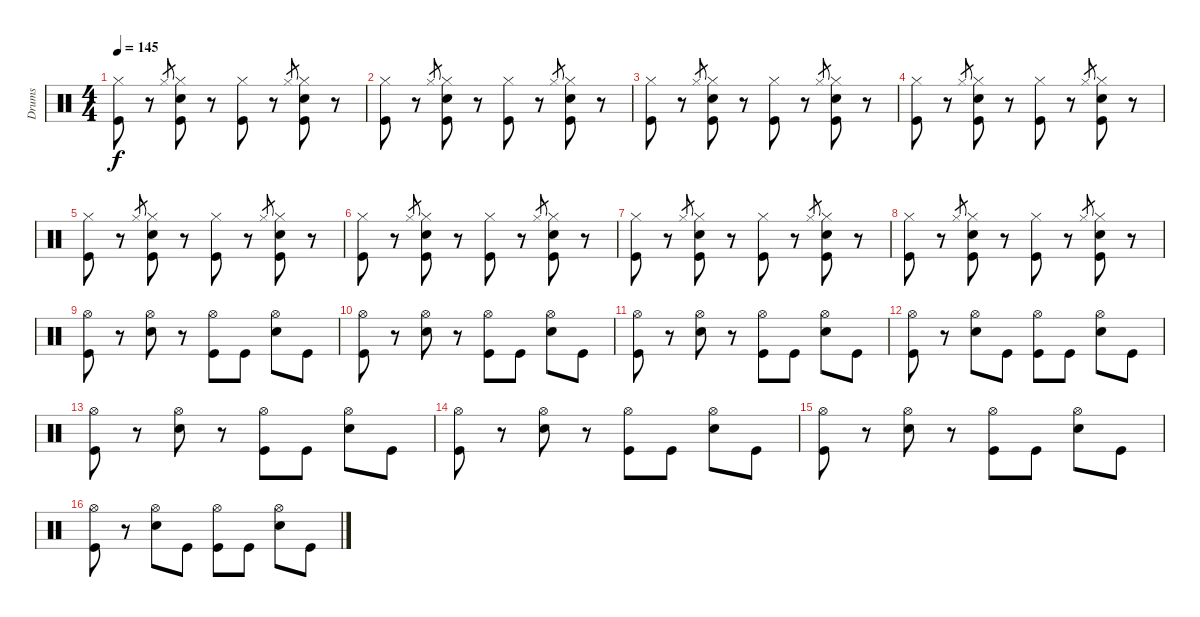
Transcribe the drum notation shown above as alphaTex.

\track ("Drums" "Drums") {instrument percussion}
\staff {score}
\articulation defaults
\ts (4 4)
\tempo 145
\clef neutral
\ks c
("Hi-Hat (closed)" "Kick (hit)").8{dy f} r.8 "Hi-Hat (closed)".8{gr} ("Hi-Hat (closed)" "Snare (hit) 2" "Kick (hit)").8 r.8 ("Hi-Hat (closed)" "Kick (hit)").8 r.8 "Hi-Hat (closed)".8{gr} ("Hi-Hat (closed)" "Snare (hit) 2" "Kick (hit)").8 r.8 |
("Hi-Hat (closed)" "Kick (hit)").8 r.8 "Hi-Hat (closed)".8{gr} ("Hi-Hat (closed)" "Snare (hit) 2" "Kick (hit)").8 r.8 ("Hi-Hat (closed)" "Kick (hit)").8 r.8 "Hi-Hat (closed)".8{gr} ("Hi-Hat (closed)" "Snare (hit) 2" "Kick (hit)").8 r.8 |
("Hi-Hat (closed)" "Kick (hit)").8 r.8 "Hi-Hat (closed)".8{gr} ("Hi-Hat (closed)" "Snare (hit) 2" "Kick (hit)").8 r.8 ("Hi-Hat (closed)" "Kick (hit)").8 r.8 "Hi-Hat (closed)".8{gr} ("Hi-Hat (closed)" "Snare (hit) 2" "Kick (hit)").8 r.8 |
("Hi-Hat (closed)" "Kick (hit)").8 r.8 "Hi-Hat (closed)".8{gr} ("Hi-Hat (closed)" "Snare (hit) 2" "Kick (hit)").8 r.8 ("Hi-Hat (closed)" "Kick (hit)").8 r.8 "Hi-Hat (closed)".8{gr} ("Hi-Hat (closed)" "Snare (hit) 2" "Kick (hit)").8 r.8 |
("Hi-Hat (closed)" "Kick (hit)").8 r.8 "Hi-Hat (closed)".8{gr} ("Hi-Hat (closed)" "Snare (hit) 2" "Kick (hit)").8 r.8 ("Hi-Hat (closed)" "Kick (hit)").8 r.8 "Hi-Hat (closed)".8{gr} ("Hi-Hat (closed)" "Snare (hit) 2" "Kick (hit)").8 r.8 |
("Hi-Hat (closed)" "Kick (hit)").8 r.8 "Hi-Hat (closed)".8{gr} ("Hi-Hat (closed)" "Snare (hit) 2" "Kick (hit)").8 r.8 ("Hi-Hat (closed)" "Kick (hit)").8 r.8 "Hi-Hat (closed)".8{gr} ("Hi-Hat (closed)" "Snare (hit) 2" "Kick (hit)").8 r.8 |
("Hi-Hat (closed)" "Kick (hit)").8 r.8 "Hi-Hat (closed)".8{gr} ("Hi-Hat (closed)" "Snare (hit) 2" "Kick (hit)").8 r.8 ("Hi-Hat (closed)" "Kick (hit)").8 r.8 "Hi-Hat (closed)".8{gr} ("Hi-Hat (closed)" "Snare (hit) 2" "Kick (hit)").8 r.8 |
("Hi-Hat (closed)" "Kick (hit)").8 r.8 "Hi-Hat (closed)".8{gr} ("Hi-Hat (closed)" "Snare (hit) 2" "Kick (hit)").8 r.8 ("Hi-Hat (closed)" "Kick (hit)").8 r.8 "Hi-Hat (closed)".8{gr} ("Hi-Hat (closed)" "Snare (hit) 2" "Kick (hit)").8 r.8 |
("Hi-Hat (open)" "Kick (hit)").8 r.8 ("Hi-Hat (open)" "Snare (hit) 2").8 r.8 ("Hi-Hat (open)" "Kick (hit)").8 "Kick (hit)".8 ("Hi-Hat (open)" "Snare (hit) 2").8 "Kick (hit)".8 |
("Hi-Hat (open)" "Kick (hit)").8 r.8 ("Hi-Hat (open)" "Snare (hit) 2").8 r.8 ("Hi-Hat (open)" "Kick (hit)").8 "Kick (hit)".8 ("Hi-Hat (open)" "Snare (hit) 2").8 "Kick (hit)".8 |
("Hi-Hat (open)" "Kick (hit)").8 r.8 ("Hi-Hat (open)" "Snare (hit) 2").8 r.8 ("Hi-Hat (open)" "Kick (hit)").8 "Kick (hit)".8 ("Hi-Hat (open)" "Snare (hit) 2").8 "Kick (hit)".8 |
("Hi-Hat (open)" "Kick (hit)").8 r.8 ("Hi-Hat (open)" "Snare (hit) 2").8 "Kick (hit)".8 ("Hi-Hat (open)" "Kick (hit)").8 "Kick (hit)".8 ("Hi-Hat (open)" "Snare (hit) 2").8 "Kick (hit)".8 |
("Hi-Hat (open)" "Kick (hit)").8 r.8 ("Hi-Hat (open)" "Snare (hit) 2").8 r.8 ("Hi-Hat (open)" "Kick (hit)").8 "Kick (hit)".8 ("Hi-Hat (open)" "Snare (hit) 2").8 "Kick (hit)".8 |
("Hi-Hat (open)" "Kick (hit)").8 r.8 ("Hi-Hat (open)" "Snare (hit) 2").8 r.8 ("Hi-Hat (open)" "Kick (hit)").8 "Kick (hit)".8 ("Hi-Hat (open)" "Snare (hit) 2").8 "Kick (hit)".8 |
("Hi-Hat (open)" "Kick (hit)").8 r.8 ("Hi-Hat (open)" "Snare (hit) 2").8 r.8 ("Hi-Hat (open)" "Kick (hit)").8 "Kick (hit)".8 ("Hi-Hat (open)" "Snare (hit) 2").8 "Kick (hit)".8 |
("Hi-Hat (open)" "Kick (hit)").8 r.8 ("Hi-Hat (open)" "Snare (hit) 2").8 "Kick (hit)".8 ("Hi-Hat (open)" "Kick (hit)").8 "Kick (hit)".8 ("Hi-Hat (open)" "Snare (hit) 2").8 "Kick (hit)".8
